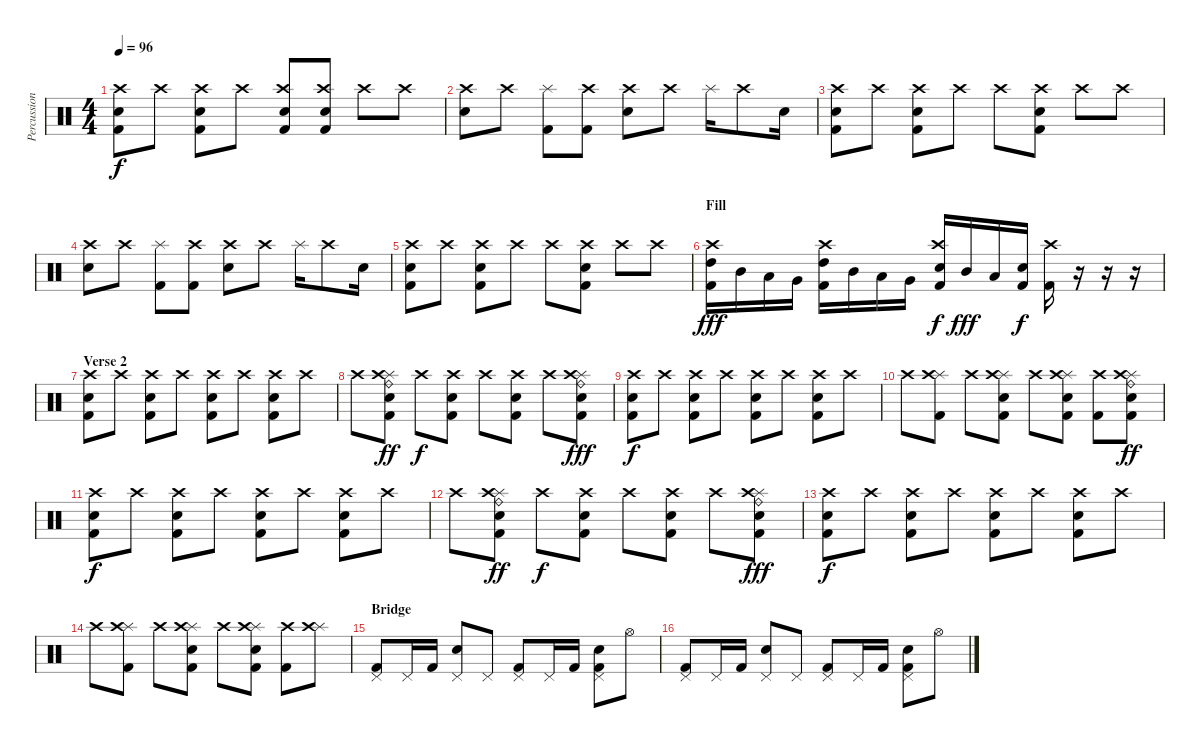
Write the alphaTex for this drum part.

\track ("Percussion" "Percussion") {instrument percussion}
\staff {score}
\articulation defaults
\ts (4 4)
\tempo 96
\clef neutral
\ks c
("Snare (hit) 2" "Crash high (hit)" "Kick (hit) 2").8{dy f} "Crash high (hit)".8 ("Snare (hit) 2" "Crash high (hit)" "Kick (hit) 2").8 "Crash high (hit)".8 ("Snare (hit) 2" "Crash high (hit)" "Kick (hit) 2").8 ("Snare (hit) 2" "Crash high (hit)" "Kick (hit) 2").8 "Crash high (hit)".8 "Crash high (hit)".8 |
("Snare (hit) 2" "Crash high (hit)").8 "Crash high (hit)".8 ("Splash (hit)" "Kick (hit) 2").8 ("Crash high (hit)" "Kick (hit) 2").8 ("Snare (hit) 2" "Crash high (hit)").8 "Crash high (hit)".8 "Splash (hit)".16 "Crash high (hit)".8 "Snare (hit) 2".16 |
("Snare (hit) 2" "Crash high (hit)" "Kick (hit) 2").8 "Crash high (hit)".8 ("Snare (hit) 2" "Crash high (hit)" "Kick (hit) 2").8 "Crash high (hit)".8 "Crash high (hit)".8 ("Snare (hit) 2" "Crash high (hit)" "Kick (hit) 2").8 "Crash high (hit)".8 "Crash high (hit)".8 |
("Snare (hit) 2" "Crash high (hit)").8 "Crash high (hit)".8 ("Splash (hit)" "Kick (hit) 2").8 ("Crash high (hit)" "Kick (hit) 2").8 ("Snare (hit) 2" "Crash high (hit)").8 "Crash high (hit)".8 "Splash (hit)".16 "Crash high (hit)".8 "Snare (hit) 2".16 |
("Snare (hit) 2" "Crash high (hit)" "Kick (hit) 2").8 "Crash high (hit)".8 ("Snare (hit) 2" "Crash high (hit)" "Kick (hit) 2").8 "Crash high (hit)".8 "Crash high (hit)".8 ("Snare (hit) 2" "Crash high (hit)" "Kick (hit) 2").8 "Crash high (hit)".8 "Crash high (hit)".8 |
\section ("" "Fill")
("Crash high (hit)" "High Tom (hit)" "Kick (hit) 2").16{dy fff} "Mid Tom (hit)".16 "Low Tom (hit)".16 "Very Low Tom (hit)".16 ("Crash high (hit)" "High Tom (hit)" "Kick (hit) 2").16 "Mid Tom (hit)".16 "Low Tom (hit)".16 "Very Low Tom (hit)".16 ("Crash high (hit)" "Snare (hit) 2" "Kick (hit) 2").16{dy f} "Mid Tom (hit)".16{dy fff} "Low Tom (hit)".16 ("Snare (hit) 2" "Kick (hit) 2").16{dy f} ("Crash high (hit)" "Kick (hit) 2").16 r.16 r.16 r.16 |
\section ("" "Verse 2")
("Crash high (hit)" "Snare (hit) 2" "Kick (hit) 2").8 "Crash high (hit)".8 ("Crash high (hit)" "Snare (hit) 2" "Kick (hit) 2").8 "Crash high (hit)".8 ("Crash high (hit)" "Snare (hit) 2" "Kick (hit) 2").8 "Crash high (hit)".8 ("Crash high (hit)" "Snare (hit) 2" "Kick (hit) 2").8 "Crash high (hit)".8 |
"Crash high (hit)".8 ("Splash (hit)" "Ride (bell)" "Crash high (hit)" "Snare (hit) 2" "Kick (hit) 2").8{dy ff} "Crash high (hit)".8{dy f} ("Crash high (hit)" "Snare (hit) 2" "Kick (hit) 2").8 "Crash high (hit)".8 ("Crash high (hit)" "Snare (hit) 2" "Kick (hit) 2").8 "Crash high (hit)".8 ("Ride (bell)" "Splash (hit)" "Crash high (hit)" "Snare (hit) 2" "Kick (hit) 2").8{dy fff} |
("Crash high (hit)" "Snare (hit) 2" "Kick (hit) 2").8{dy f} "Crash high (hit)".8 ("Crash high (hit)" "Snare (hit) 2" "Kick (hit) 2").8 "Crash high (hit)".8 ("Crash high (hit)" "Snare (hit) 2" "Kick (hit) 2").8 "Crash high (hit)".8 ("Crash high (hit)" "Snare (hit) 2" "Kick (hit) 2").8 "Crash high (hit)".8 |
"Crash high (hit)".8 ("Splash (hit)" "Crash high (hit)" "Kick (hit) 2").8 "Crash high (hit)".8 ("Splash (hit)" "Crash high (hit)" "Snare (hit) 2" "Kick (hit) 2").8 "Crash high (hit)".8 ("Splash (hit)" "Crash high (hit)" "Snare (hit) 2" "Kick (hit) 2").8 ("Crash high (hit)" "Kick (hit) 2").8 ("Ride (bell)" "Splash (hit)" "Crash high (hit)" "Snare (hit) 2" "Kick (hit) 2").8{dy ff} |
("Crash high (hit)" "Snare (hit) 2" "Kick (hit) 2").8{dy f} "Crash high (hit)".8 ("Crash high (hit)" "Snare (hit) 2" "Kick (hit) 2").8 "Crash high (hit)".8 ("Crash high (hit)" "Snare (hit) 2" "Kick (hit) 2").8 "Crash high (hit)".8 ("Crash high (hit)" "Snare (hit) 2" "Kick (hit) 2").8 "Crash high (hit)".8 |
"Crash high (hit)".8 ("Splash (hit)" "Ride (bell)" "Crash high (hit)" "Snare (hit) 2" "Kick (hit) 2").8{dy ff} "Crash high (hit)".8{dy f} ("Crash high (hit)" "Snare (hit) 2" "Kick (hit) 2").8 "Crash high (hit)".8 ("Crash high (hit)" "Snare (hit) 2" "Kick (hit) 2").8 "Crash high (hit)".8 ("Ride (bell)" "Splash (hit)" "Crash high (hit)" "Snare (hit) 2" "Kick (hit) 2").8{dy fff} |
("Crash high (hit)" "Snare (hit) 2" "Kick (hit) 2").8{dy f} "Crash high (hit)".8 ("Crash high (hit)" "Snare (hit) 2" "Kick (hit) 2").8 "Crash high (hit)".8 ("Crash high (hit)" "Snare (hit) 2" "Kick (hit) 2").8 "Crash high (hit)".8 ("Crash high (hit)" "Snare (hit) 2" "Kick (hit) 2").8 "Crash high (hit)".8 |
"Crash high (hit)".8 ("Splash (hit)" "Crash high (hit)" "Kick (hit) 2").8 "Crash high (hit)".8 ("Splash (hit)" "Crash high (hit)" "Snare (hit) 2" "Kick (hit) 2").8 "Crash high (hit)".8 ("Splash (hit)" "Crash high (hit)" "Snare (hit) 2" "Kick (hit) 2").8 ("Crash high (hit)" "Kick (hit) 2").8 ("Splash (hit)" "Crash high (hit)").8 |
\section ("" "Bridge")
("Pedal Hi-Hat (hit)" "Kick (hit) 2").8 "Pedal Hi-Hat (hit)".16 "Kick (hit) 2".16 ("Pedal Hi-Hat (hit)" "Snare (hit) 2").8 "Pedal Hi-Hat (hit)".8 ("Pedal Hi-Hat (hit)" "Kick (hit) 2").8 "Pedal Hi-Hat (hit)".16 "Kick (hit) 2".16 ("Pedal Hi-Hat (hit)" "Kick (hit) 2" "Snare (hit) 2").8 "Hi-Hat (open)".8 |
("Pedal Hi-Hat (hit)" "Kick (hit) 2").8 "Pedal Hi-Hat (hit)".16 "Kick (hit) 2".16 ("Pedal Hi-Hat (hit)" "Snare (hit) 2").8 "Pedal Hi-Hat (hit)".8 ("Pedal Hi-Hat (hit)" "Kick (hit) 2").8 "Pedal Hi-Hat (hit)".16 "Kick (hit) 2".16 ("Pedal Hi-Hat (hit)" "Kick (hit) 2" "Snare (hit) 2").8 "Hi-Hat (open)".8
